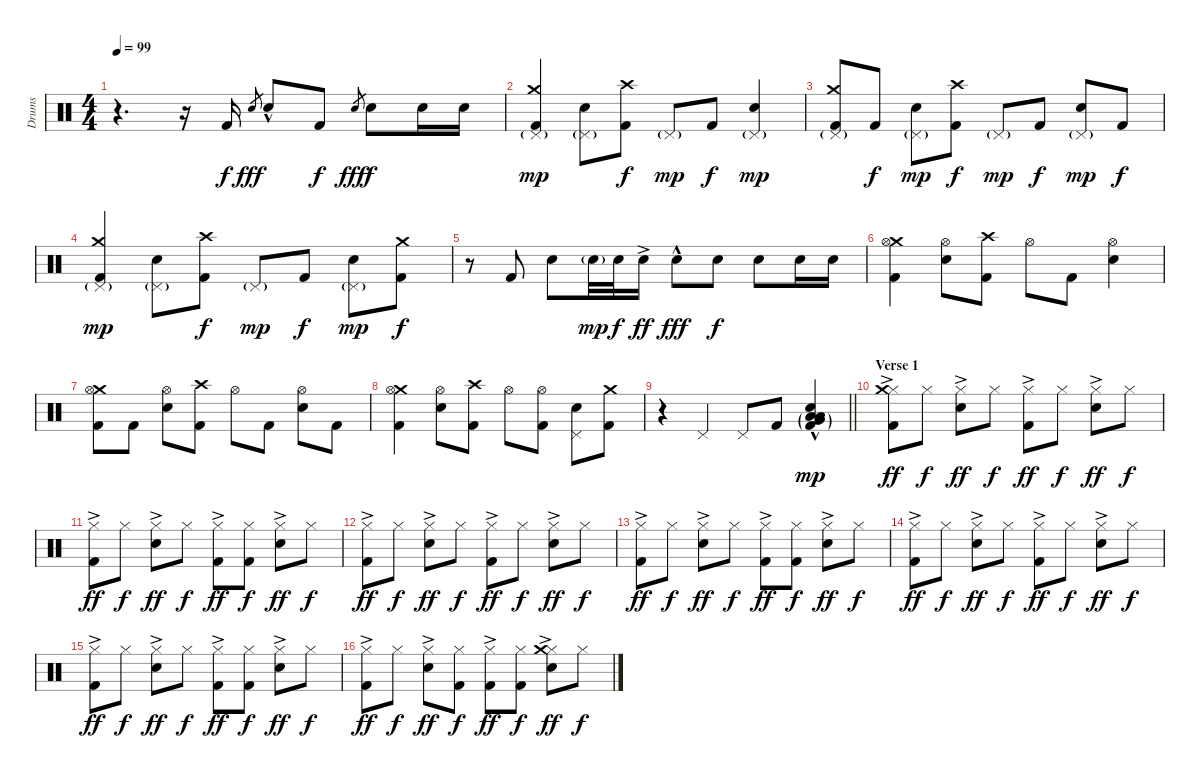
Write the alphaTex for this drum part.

\track ("Drums" "Drums") {instrument percussion}
\staff {score}
\articulation defaults
\ts (4 4)
\tempo 99
\clef neutral
\ks c
r.4{d dy f} r.16 "Kick (hit) 2".16 "Electric Snare (hit)"{h}.8{gr dy fff} "Electric Snare (hit)"{hac}.8 "Kick (hit) 2".8{dy f} "Electric Snare (hit)"{h}.8{gr dy fff} "Electric Snare (hit)".8{dy f} "Electric Snare (hit)".16 "Electric Snare (hit)".16 |
("Crash medium (hit)" "Kick (hit) 2" "Pedal Hi-Hat (hit)"{g}).4{dy mp} ("Electric Snare (hit)" "Pedal Hi-Hat (hit)"{g}).8 ("Crash high (hit)" "Kick (hit) 2").8{dy f} "Pedal Hi-Hat (hit)"{g}.8{dy mp} "Kick (hit) 2".8{dy f} ("Electric Snare (hit)" "Pedal Hi-Hat (hit)"{g}).4{dy mp} |
("Crash medium (hit)" "Kick (hit) 2" "Pedal Hi-Hat (hit)"{g}).8 "Kick (hit) 2".8{dy f} ("Electric Snare (hit)" "Pedal Hi-Hat (hit)"{g}).8{dy mp} ("Crash high (hit)" "Kick (hit) 2").8{dy f} "Pedal Hi-Hat (hit)"{g}.8{dy mp} "Kick (hit) 2".8{dy f} ("Electric Snare (hit)" "Pedal Hi-Hat (hit)"{g}).8{dy mp} "Kick (hit) 2".8{dy f} |
("Crash medium (hit)" "Kick (hit) 2" "Pedal Hi-Hat (hit)"{g}).4{dy mp} ("Electric Snare (hit)" "Pedal Hi-Hat (hit)"{g}).8 ("Crash high (hit)" "Kick (hit) 2").8{dy f} "Pedal Hi-Hat (hit)"{g}.8{dy mp} "Kick (hit) 2".8{dy f} ("Electric Snare (hit)" "Pedal Hi-Hat (hit)"{g}).8{dy mp} ("Crash medium (hit)" "Kick (hit) 2").8{dy f} |
r.8 "Kick (hit) 2".8 "Electric Snare (hit)".8 "Electric Snare (hit)"{g}.32{dy mp} "Electric Snare (hit)".32{dy f} "Electric Snare (hit)"{ac}.16{dy ff} "Electric Snare (hit)"{hac}.8{dy fff} "Electric Snare (hit)".8{dy f} "Electric Snare (hit)".8 "Electric Snare (hit)".16 "Electric Snare (hit)".16 |
("Crash medium (hit)" "Kick (hit) 2" "Hi-Hat (open)").4 ("Electric Snare (hit)" "Hi-Hat (open)").8 ("Crash high (hit)" "Kick (hit) 2").8 "Hi-Hat (open)".8 "Kick (hit) 2".8 ("Electric Snare (hit)" "Hi-Hat (open)").4 |
("Crash medium (hit)" "Kick (hit) 2" "Hi-Hat (open)").8 "Kick (hit) 2".8 ("Electric Snare (hit)" "Hi-Hat (open)").8 ("Crash high (hit)" "Kick (hit) 2").8 "Hi-Hat (open)".8 "Kick (hit) 2".8 ("Electric Snare (hit)" "Hi-Hat (open)").8 "Kick (hit) 2".8 |
("Crash medium (hit)" "Kick (hit) 2" "Hi-Hat (open)").4 ("Electric Snare (hit)" "Hi-Hat (open)").8 ("Crash high (hit)" "Kick (hit) 2").8 "Hi-Hat (open)".8 ("Hi-Hat (open)" "Kick (hit) 2").8 ("Pedal Hi-Hat (hit)" "Electric Snare (hit)").8 ("Crash medium (hit)" "Kick (hit) 2").8 |
\barLineRight lightlight
r.4 "Pedal Hi-Hat (hit)".4 "Pedal Hi-Hat (hit)".8 "Kick (hit) 2".8 ("Low Tom (hit)"{g} "Electric Snare (hit)"{hac} "Low Floor Tom (hit)"{g} "Very Low Tom (hit)"{g} "Kick (hit) 2"{g}).4{dy mp} |
\section ("" "Verse 1")
("Hi-Hat (closed)"{ac} "Kick (hit) 2" "Crash medium (hit)").8{dy ff} "Hi-Hat (closed)".8{dy f} ("Hi-Hat (closed)"{ac} "Electric Snare (hit)").8{dy ff} "Hi-Hat (closed)".8{dy f} ("Hi-Hat (closed)"{ac} "Kick (hit) 2").8{dy ff} "Hi-Hat (closed)".8{dy f} ("Hi-Hat (closed)"{ac} "Electric Snare (hit)").8{dy ff} "Hi-Hat (closed)".8{dy f} |
("Hi-Hat (closed)"{ac} "Kick (hit) 2").8{dy ff} "Hi-Hat (closed)".8{dy f} ("Hi-Hat (closed)"{ac} "Electric Snare (hit)").8{dy ff} "Hi-Hat (closed)".8{dy f} ("Hi-Hat (closed)"{ac} "Kick (hit) 2").8{dy ff} ("Hi-Hat (closed)" "Kick (hit) 2").8{dy f} ("Hi-Hat (closed)"{ac} "Electric Snare (hit)").8{dy ff} "Hi-Hat (closed)".8{dy f} |
("Hi-Hat (closed)"{ac} "Kick (hit) 2").8{dy ff} "Hi-Hat (closed)".8{dy f} ("Hi-Hat (closed)"{ac} "Electric Snare (hit)").8{dy ff} "Hi-Hat (closed)".8{dy f} ("Hi-Hat (closed)"{ac} "Kick (hit) 2").8{dy ff} "Hi-Hat (closed)".8{dy f} ("Hi-Hat (closed)"{ac} "Electric Snare (hit)").8{dy ff} "Hi-Hat (closed)".8{dy f} |
("Hi-Hat (closed)"{ac} "Kick (hit) 2").8{dy ff} "Hi-Hat (closed)".8{dy f} ("Hi-Hat (closed)"{ac} "Electric Snare (hit)").8{dy ff} "Hi-Hat (closed)".8{dy f} ("Hi-Hat (closed)"{ac} "Kick (hit) 2").8{dy ff} ("Hi-Hat (closed)" "Kick (hit) 2").8{dy f} ("Hi-Hat (closed)"{ac} "Electric Snare (hit)").8{dy ff} "Hi-Hat (closed)".8{dy f} |
("Hi-Hat (closed)"{ac} "Kick (hit) 2").8{dy ff} "Hi-Hat (closed)".8{dy f} ("Hi-Hat (closed)"{ac} "Electric Snare (hit)").8{dy ff} "Hi-Hat (closed)".8{dy f} ("Hi-Hat (closed)"{ac} "Kick (hit) 2").8{dy ff} "Hi-Hat (closed)".8{dy f} ("Hi-Hat (closed)"{ac} "Electric Snare (hit)").8{dy ff} "Hi-Hat (closed)".8{dy f} |
("Hi-Hat (closed)"{ac} "Kick (hit) 2").8{dy ff} "Hi-Hat (closed)".8{dy f} ("Hi-Hat (closed)"{ac} "Electric Snare (hit)").8{dy ff} "Hi-Hat (closed)".8{dy f} ("Hi-Hat (closed)"{ac} "Kick (hit) 2").8{dy ff} ("Hi-Hat (closed)" "Kick (hit) 2").8{dy f} ("Hi-Hat (closed)"{ac} "Electric Snare (hit)").8{dy ff} "Hi-Hat (closed)".8{dy f} |
("Hi-Hat (closed)"{ac} "Kick (hit) 2").8{dy ff} "Hi-Hat (closed)".8{dy f} ("Hi-Hat (closed)"{ac} "Electric Snare (hit)").8{dy ff} ("Hi-Hat (closed)" "Kick (hit) 2").8{dy f} ("Hi-Hat (closed)"{ac} "Kick (hit) 2").8{dy ff} ("Hi-Hat (closed)" "Kick (hit) 2").8{dy f} ("Hi-Hat (closed)"{ac} "Electric Snare (hit)" "Crash medium (hit)").8{dy ff} "Hi-Hat (closed)".8{dy f}
